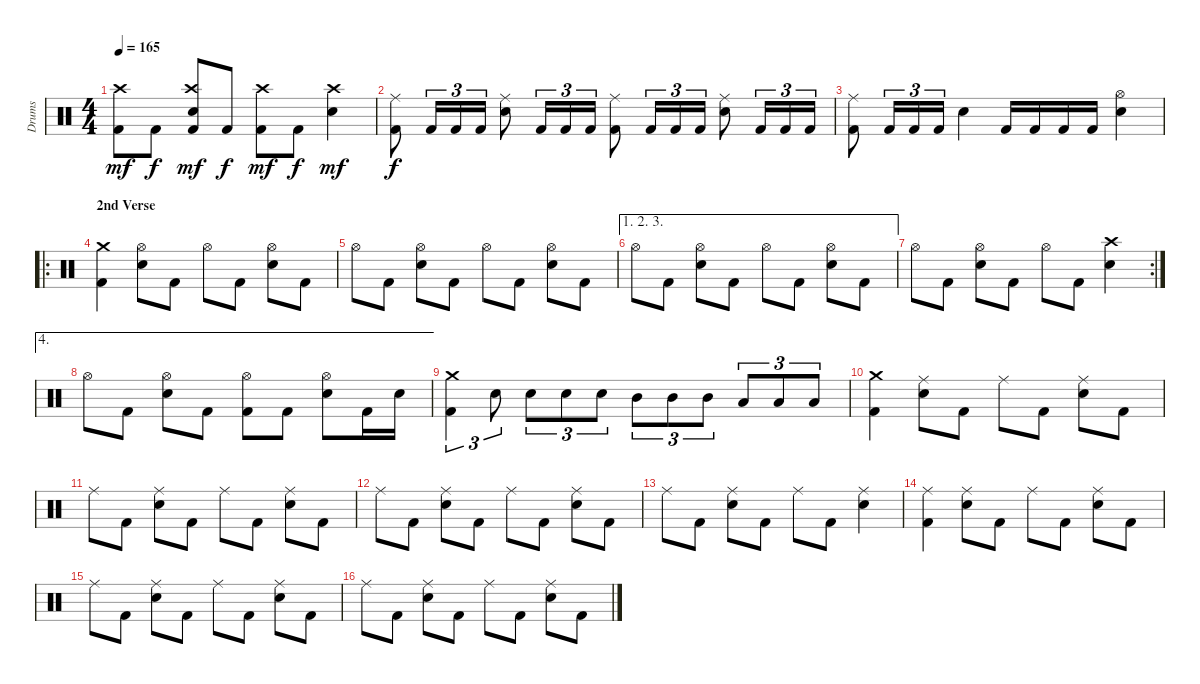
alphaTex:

\track ("Drums" "Drums") {instrument percussion}
\staff {score}
\articulation defaults
\ts (4 4)
\tempo 165
\clef neutral
\ks c
("Kick (hit) 2" "Crash high (hit)").8{dy mf} "Kick (hit) 2".8{dy f} ("Kick (hit) 2" "Electric Snare (hit)" "Crash high (hit)").8{dy mf} "Kick (hit) 2".8{dy f} ("Kick (hit) 2" "Crash high (hit)").8{dy mf} "Kick (hit) 2".8{dy f} ("Electric Snare (hit)" "Crash high (hit)").4{dy mf} |
("Kick (hit) 2" "Ride (middle)").8{dy f} "Kick (hit) 2".16{tu (3 2)} "Kick (hit) 2".16{tu (3 2)} "Kick (hit) 2".16{tu (3 2)} ("Electric Snare (hit)" "Ride (middle)").8 "Kick (hit) 2".16{tu (3 2)} "Kick (hit) 2".16{tu (3 2)} "Kick (hit) 2".16{tu (3 2)} ("Kick (hit) 2" "Ride (middle)").8 "Kick (hit) 2".16{tu (3 2)} "Kick (hit) 2".16{tu (3 2)} "Kick (hit) 2".16{tu (3 2)} ("Electric Snare (hit)" "Ride (middle)").8 "Kick (hit) 2".16{tu (3 2)} "Kick (hit) 2".16{tu (3 2)} "Kick (hit) 2".16{tu (3 2)} |
("Kick (hit) 2" "Ride (middle)").8 "Kick (hit) 2".16{tu (3 2)} "Kick (hit) 2".16{tu (3 2)} "Kick (hit) 2".16{tu (3 2)} "Electric Snare (hit)".4 "Kick (hit) 2".16 "Kick (hit) 2".16 "Kick (hit) 2".16 "Kick (hit) 2".16 ("Electric Snare (hit)" "Hi-Hat (open)").4 |
\ro
\section ("" "2nd Verse")
("Kick (hit) 2" "Crash medium (hit)").4 ("Electric Snare (hit)" "Hi-Hat (open)").8 "Kick (hit) 2".8 "Hi-Hat (open)".8 "Kick (hit) 2".8 ("Electric Snare (hit)" "Hi-Hat (open)").8 "Kick (hit) 2".8 |
"Hi-Hat (open)".8 "Kick (hit) 2".8 ("Electric Snare (hit)" "Hi-Hat (open)").8 "Kick (hit) 2".8 "Hi-Hat (open)".8 "Kick (hit) 2".8 ("Electric Snare (hit)" "Hi-Hat (open)").8 "Kick (hit) 2".8 |
\ae (1 2 3)
"Hi-Hat (open)".8 "Kick (hit) 2".8 ("Electric Snare (hit)" "Hi-Hat (open)").8 "Kick (hit) 2".8 "Hi-Hat (open)".8 "Kick (hit) 2".8 ("Electric Snare (hit)" "Hi-Hat (open)").8 "Kick (hit) 2".8 |
\rc 2 "Hi-Hat (open)".8 "Kick (hit) 2".8
("Electric Snare (hit)" "Hi-Hat (open)").8 "Kick (hit) 2".8 "Hi-Hat (open)".8 "Kick (hit) 2".8 ("Electric Snare (hit)" "Crash high (hit)").4 |
\ae 4 "Hi-Hat (open)".8 "Kick (hit) 2".8
("Electric Snare (hit)" "Hi-Hat (open)").8 "Kick (hit) 2".8 ("Kick (hit) 2" "Hi-Hat (open)").8 "Kick (hit) 2".8 ("Electric Snare (hit)" "Hi-Hat (open)").8 "Kick (hit) 2".16 "Electric Snare (hit)".16 |
("Kick (hit) 2" "Crash medium (hit)").4{tu (3 2)} "Electric Snare (hit)".8{tu (3 2)} "Electric Snare (hit)".8{tu (3 2)} "Electric Snare (hit)".8{tu (3 2)} "Electric Snare (hit)".8{tu (3 2)} "Mid Tom (hit)".8{tu (3 2)} "Mid Tom (hit)".8{tu (3 2)} "Mid Tom (hit)".8{tu (3 2)} "Low Tom (hit)".8{tu (3 2)} "Low Tom (hit)".8{tu (3 2)} "Low Tom (hit)".8{tu (3 2)} |
("Kick (hit) 2" "Crash medium (hit)").4 ("Electric Snare (hit)" "Ride (middle)").8 "Kick (hit) 2".8 "Ride (middle)".8 "Kick (hit) 2".8 ("Electric Snare (hit)" "Ride (middle)").8 "Kick (hit) 2".8 |
"Ride (middle)".8 "Kick (hit) 2".8 ("Electric Snare (hit)" "Ride (middle)").8 "Kick (hit) 2".8 "Ride (middle)".8 "Kick (hit) 2".8 ("Electric Snare (hit)" "Ride (middle)").8 "Kick (hit) 2".8 |
"Ride (middle)".8 "Kick (hit) 2".8 ("Electric Snare (hit)" "Ride (middle)").8 "Kick (hit) 2".8 "Ride (middle)".8 "Kick (hit) 2".8 ("Electric Snare (hit)" "Ride (middle)").8 "Kick (hit) 2".8 |
"Ride (middle)".8 "Kick (hit) 2".8 ("Electric Snare (hit)" "Ride (middle)").8 "Kick (hit) 2".8 "Ride (middle)".8 "Kick (hit) 2".8 ("Electric Snare (hit)" "Ride (middle)").4 |
("Kick (hit) 2" "Ride (middle)").4 ("Electric Snare (hit)" "Ride (middle)").8 "Kick (hit) 2".8 "Ride (middle)".8 "Kick (hit) 2".8 ("Electric Snare (hit)" "Ride (middle)").8 "Kick (hit) 2".8 |
"Ride (middle)".8 "Kick (hit) 2".8 ("Electric Snare (hit)" "Ride (middle)").8 "Kick (hit) 2".8 "Ride (middle)".8 "Kick (hit) 2".8 ("Electric Snare (hit)" "Ride (middle)").8 "Kick (hit) 2".8 |
"Ride (middle)".8 "Kick (hit) 2".8 ("Electric Snare (hit)" "Ride (middle)").8 "Kick (hit) 2".8 "Ride (middle)".8 "Kick (hit) 2".8 ("Electric Snare (hit)" "Ride (middle)").8 "Kick (hit) 2".8
